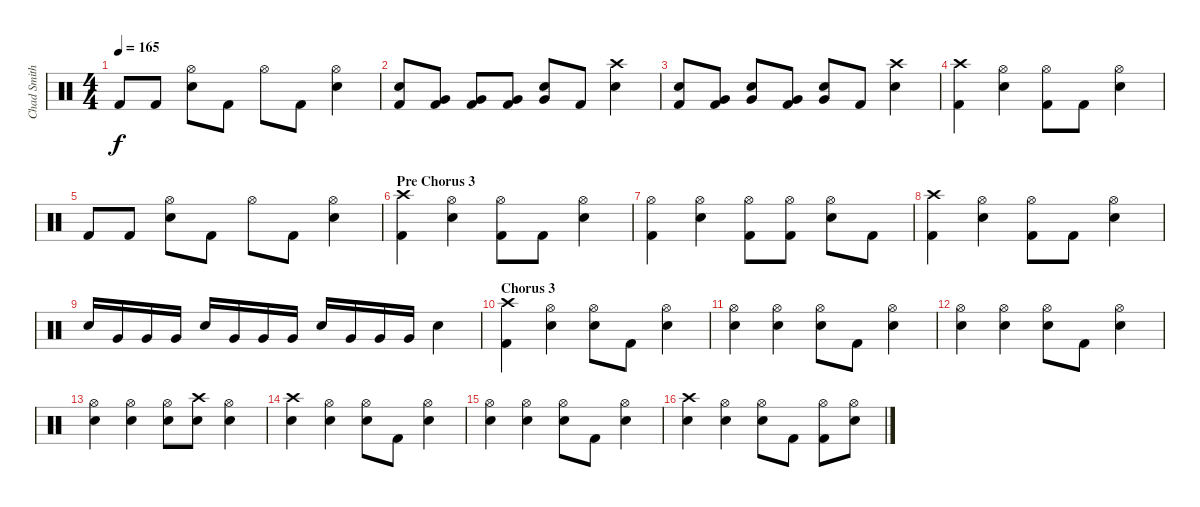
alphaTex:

\track ("Chad Smith - Drums" "Chad Smith") {instrument percussion}
\staff {score}
\articulation defaults
\ts (4 4)
\tempo 165
\clef neutral
\ks c "Kick (hit) 2".8{dy f} "Kick (hit) 2".8
("Snare (hit) 2" "Hi-Hat (open)").8 "Kick (hit) 2".8 "Hi-Hat (open)".8 "Kick (hit) 2".8 ("Hi-Hat (open)" "Snare (hit) 2").4 |
("Snare (hit) 2" "Kick (hit) 2").8 ("Kick (hit) 2" "Very Low Tom (hit)").8 ("Very Low Tom (hit)" "Kick (hit) 2").8 ("Kick (hit) 2" "Very Low Tom (hit)").8 ("Very Low Tom (hit)" "Snare (hit) 2").8 "Kick (hit) 2".8 ("Snare (hit) 2" "Crash high (hit)").4 |
("Kick (hit) 2" "Snare (hit) 2").8 ("Kick (hit) 2" "Very Low Tom (hit)").8 ("Very Low Tom (hit)" "Snare (hit) 2").8 ("Kick (hit) 2" "Very Low Tom (hit)").8 ("Very Low Tom (hit)" "Snare (hit) 2").8 "Kick (hit) 2".8 ("Snare (hit) 2" "Crash high (hit)").4 |
("Kick (hit) 2" "Crash high (hit)").4 ("Snare (hit) 2" "Hi-Hat (open)").4 ("Hi-Hat (open)" "Kick (hit) 2").8 "Kick (hit) 2".8 ("Snare (hit) 2" "Hi-Hat (open)").4 |
"Kick (hit) 2".8 "Kick (hit) 2".8 ("Snare (hit) 2" "Hi-Hat (open)").8 "Kick (hit) 2".8 "Hi-Hat (open)".8 "Kick (hit) 2".8 ("Hi-Hat (open)" "Snare (hit) 2").4 |
\section ("" "Pre Chorus 3")
("Crash high (hit)" "Kick (hit) 2").4 ("Hi-Hat (open)" "Snare (hit) 2").4 ("Hi-Hat (open)" "Kick (hit) 2").8 "Kick (hit) 2".8 ("Hi-Hat (open)" "Snare (hit) 2").4 |
("Hi-Hat (open)" "Kick (hit) 2").4 ("Hi-Hat (open)" "Snare (hit) 2").4 ("Hi-Hat (open)" "Kick (hit) 2").8 ("Hi-Hat (open)" "Kick (hit) 2").8 ("Hi-Hat (open)" "Snare (hit) 2").8 "Kick (hit) 2".8 |
("Crash high (hit)" "Kick (hit) 2").4 ("Hi-Hat (open)" "Snare (hit) 2").4 ("Hi-Hat (open)" "Kick (hit) 2").8 "Kick (hit) 2".8 ("Hi-Hat (open)" "Snare (hit) 2").4 |
"Snare (hit) 2".16 "Very Low Tom (hit)".16 "Very Low Tom (hit)".16 "Very Low Tom (hit)".16 "Snare (hit) 2".16 "Very Low Tom (hit)".16 "Very Low Tom (hit)".16 "Very Low Tom (hit)".16 "Snare (hit) 2".16 "Very Low Tom (hit)".16 "Very Low Tom (hit)".16 "Very Low Tom (hit)".16 "Snare (hit) 2".4 |
\section ("" "Chorus 3")
("Crash high (hit)" "Kick (hit) 2").4 ("Hi-Hat (open)" "Snare (hit) 2").4 ("Hi-Hat (open)" "Snare (hit) 2").8 "Kick (hit) 2".8 ("Hi-Hat (open)" "Snare (hit) 2").4 |
("Hi-Hat (open)" "Snare (hit) 2").4 ("Hi-Hat (open)" "Snare (hit) 2").4 ("Hi-Hat (open)" "Snare (hit) 2").8 "Kick (hit) 2".8 ("Hi-Hat (open)" "Snare (hit) 2").4 |
("Hi-Hat (open)" "Snare (hit) 2").4 ("Hi-Hat (open)" "Snare (hit) 2").4 ("Hi-Hat (open)" "Snare (hit) 2").8 "Kick (hit) 2".8 ("Hi-Hat (open)" "Snare (hit) 2").4 |
("Hi-Hat (open)" "Snare (hit) 2").4 ("Hi-Hat (open)" "Snare (hit) 2").4 ("Hi-Hat (open)" "Snare (hit) 2").8 ("Crash high (hit)" "Snare (hit) 2").8 ("Snare (hit) 2" "Hi-Hat (open)").4 |
("Snare (hit) 2" "Crash high (hit)").4 ("Hi-Hat (open)" "Snare (hit) 2").4 ("Hi-Hat (open)" "Snare (hit) 2").8 "Kick (hit) 2".8 ("Snare (hit) 2" "Hi-Hat (open)").4 |
("Hi-Hat (open)" "Snare (hit) 2").4 ("Hi-Hat (open)" "Snare (hit) 2").4 ("Snare (hit) 2" "Hi-Hat (open)").8 "Kick (hit) 2".8 ("Hi-Hat (open)" "Snare (hit) 2").4 |
("Crash high (hit)" "Snare (hit) 2").4 ("Snare (hit) 2" "Hi-Hat (open)").4 ("Hi-Hat (open)" "Snare (hit) 2").8 "Kick (hit) 2".8 ("Hi-Hat (open)" "Kick (hit) 2").8 ("Hi-Hat (open)" "Snare (hit) 2").8
